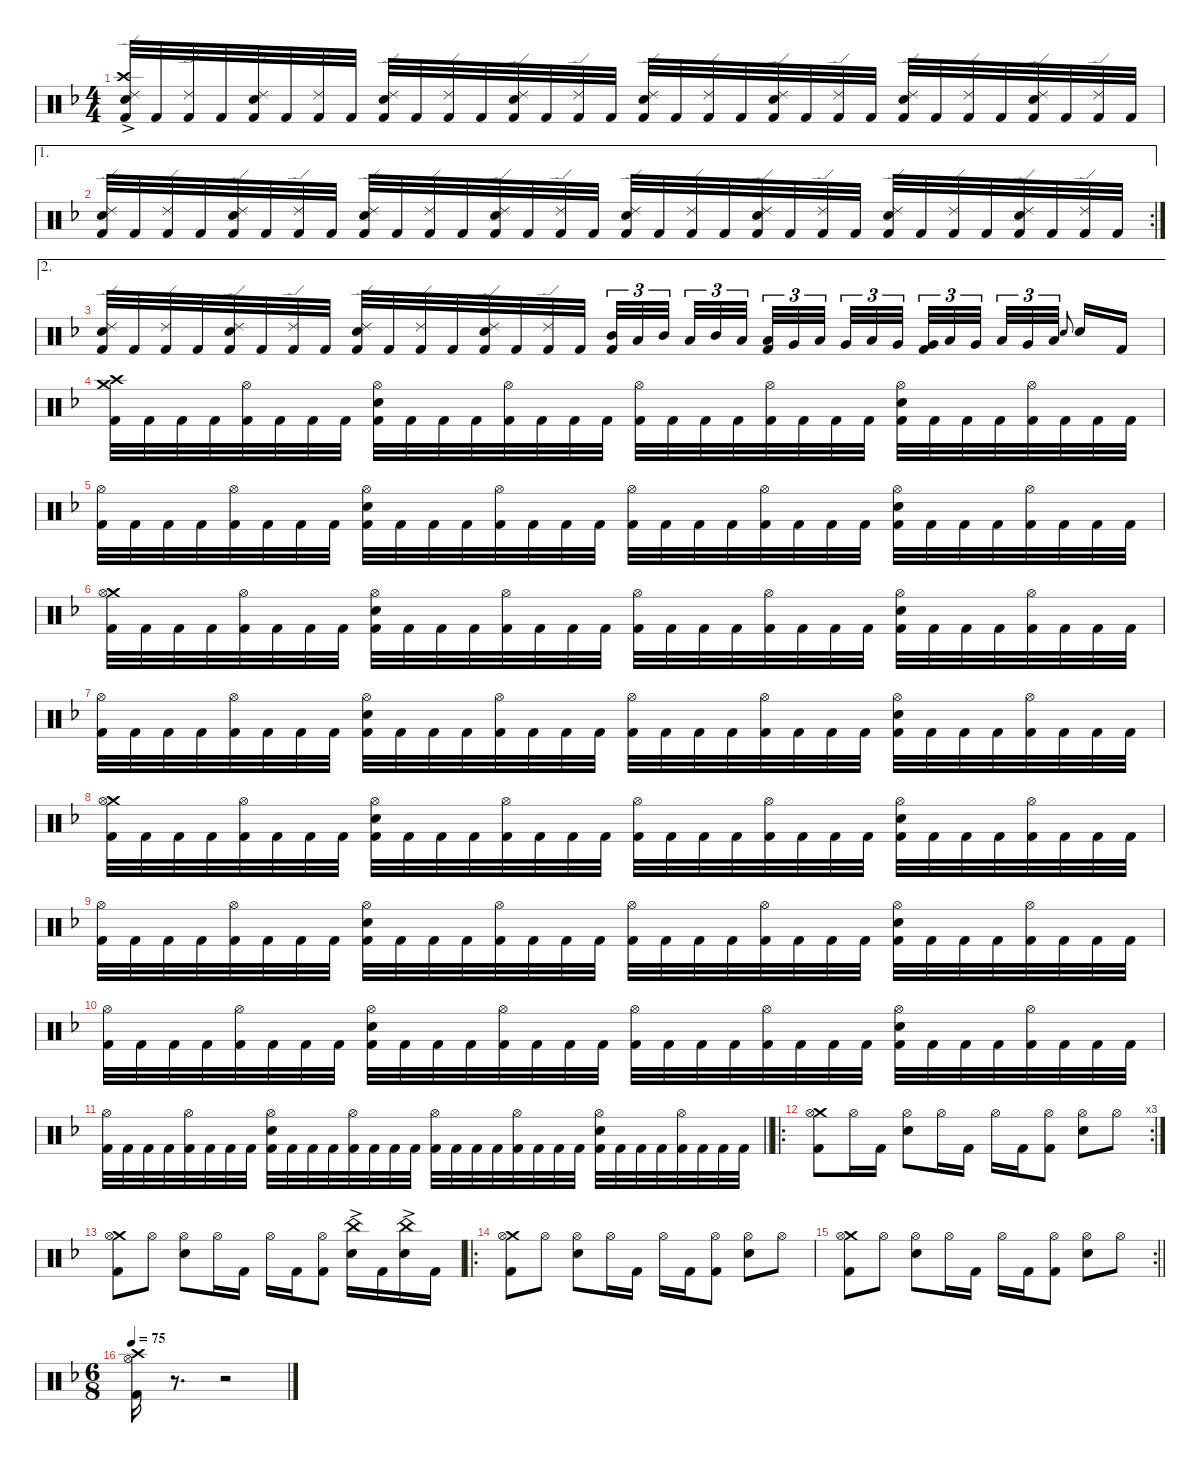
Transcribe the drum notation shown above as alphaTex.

\defaultSystemsLayout 4
\hideDynamics
\bracketExtendMode nobrackets
\singleTrackTrackNamePolicy hidden
\multiTrackTrackNamePolicy hidden
\otherSystemsTrackNameOrientation horizontal
\track ("Martin Lopez - Drums" "drm.") {defaultSystemsLayout 4 instrument percussion}
\staff {score}
\articulation defaults
\ts (4 4)
\tempo (85 hide)
\clef neutral
\ks dminor
("Ride (edge) 2"{acc forcenatural} "Crash high (hit)"{ac acc forcenatural} "Snare (hit) 2"{acc forcenatural} "Kick (hit) 2"{acc forcenatural}).32{dy f beam Up} "Kick (hit) 2"{acc forcenatural}.32{beam Up} ("Ride (edge) 2"{acc forcenatural} "Kick (hit) 2"{acc forcenatural}).32{beam Up} "Kick (hit) 2"{acc forcenatural}.32{beam Up} ("Ride (edge) 2"{acc forcenatural} "Snare (hit) 2"{acc forcenatural} "Kick (hit) 2"{acc forcenatural}).32{beam Up} "Kick (hit) 2"{acc forcenatural}.32{beam Up} ("Ride (edge) 2"{acc forcenatural} "Kick (hit) 2"{acc forcenatural}).32{beam Up} "Kick (hit) 2"{acc forcenatural}.32{beam Up} ("Ride (edge) 2"{acc forcenatural} "Snare (hit) 2"{acc forcenatural} "Kick (hit) 2"{acc forcenatural}).32{beam Up} "Kick (hit) 2"{acc forcenatural}.32{beam Up} ("Ride (edge) 2"{acc forcenatural} "Kick (hit) 2"{acc forcenatural}).32{beam Up} "Kick (hit) 2"{acc forcenatural}.32{beam Up} ("Ride (edge) 2"{acc forcenatural} "Snare (hit) 2"{acc forcenatural} "Kick (hit) 2"{acc forcenatural}).32{beam Up} "Kick (hit) 2"{acc forcenatural}.32{beam Up} ("Ride (edge) 2"{acc forcenatural} "Kick (hit) 2"{acc forcenatural}).32{beam Up} "Kick (hit) 2"{acc forcenatural}.32{beam Up} ("Ride (edge) 2"{acc forcenatural} "Snare (hit) 2"{acc forcenatural} "Kick (hit) 2"{acc forcenatural}).32{beam Up} "Kick (hit) 2"{acc forcenatural}.32{beam Up} ("Ride (edge) 2"{acc forcenatural} "Kick (hit) 2"{acc forcenatural}).32{beam Up} "Kick (hit) 2"{acc forcenatural}.32{beam Up} ("Ride (edge) 2"{acc forcenatural} "Snare (hit) 2"{acc forcenatural} "Kick (hit) 2"{acc forcenatural}).32{beam Up} "Kick (hit) 2"{acc forcenatural}.32{beam Up} ("Ride (edge) 2"{acc forcenatural} "Kick (hit) 2"{acc forcenatural}).32{beam Up} "Kick (hit) 2"{acc forcenatural}.32{beam Up} ("Ride (edge) 2"{acc forcenatural} "Snare (hit) 2"{acc forcenatural} "Kick (hit) 2"{acc forcenatural}).32{beam Up} "Kick (hit) 2"{acc forcenatural}.32{beam Up} ("Ride (edge) 2"{acc forcenatural} "Kick (hit) 2"{acc forcenatural}).32{beam Up} "Kick (hit) 2"{acc forcenatural}.32{beam Up} ("Ride (edge) 2"{acc forcenatural} "Snare (hit) 2"{acc forcenatural} "Kick (hit) 2"{acc forcenatural}).32{beam Up} "Kick (hit) 2"{acc forcenatural}.32{beam Up} ("Ride (edge) 2"{acc forcenatural} "Kick (hit) 2"{acc forcenatural}).32{beam Up} "Kick (hit) 2"{acc forcenatural}.32{beam Up} |
\ae 1
\rc 2
\tempo (84 hide)
("Ride (edge) 2"{acc forcenatural} "Snare (hit) 2"{acc forcenatural} "Kick (hit) 2"{acc forcenatural}).32{beam Up} "Kick (hit) 2"{acc forcenatural}.32{beam Up} ("Ride (edge) 2"{acc forcenatural} "Kick (hit) 2"{acc forcenatural}).32{beam Up} "Kick (hit) 2"{acc forcenatural}.32{beam Up} ("Ride (edge) 2"{acc forcenatural} "Snare (hit) 2"{acc forcenatural} "Kick (hit) 2"{acc forcenatural}).32{beam Up} "Kick (hit) 2"{acc forcenatural}.32{beam Up} ("Ride (edge) 2"{acc forcenatural} "Kick (hit) 2"{acc forcenatural}).32{beam Up} "Kick (hit) 2"{acc forcenatural}.32{beam Up} ("Ride (edge) 2"{acc forcenatural} "Snare (hit) 2"{acc forcenatural} "Kick (hit) 2"{acc forcenatural}).32{beam Up} "Kick (hit) 2"{acc forcenatural}.32{beam Up} ("Ride (edge) 2"{acc forcenatural} "Kick (hit) 2"{acc forcenatural}).32{beam Up} "Kick (hit) 2"{acc forcenatural}.32{beam Up} ("Ride (edge) 2"{acc forcenatural} "Snare (hit) 2"{acc forcenatural} "Kick (hit) 2"{acc forcenatural}).32{beam Up} "Kick (hit) 2"{acc forcenatural}.32{beam Up} ("Ride (edge) 2"{acc forcenatural} "Kick (hit) 2"{acc forcenatural}).32{beam Up} "Kick (hit) 2"{acc forcenatural}.32{beam Up} ("Ride (edge) 2"{acc forcenatural} "Snare (hit) 2"{acc forcenatural} "Kick (hit) 2"{acc forcenatural}).32{beam Up} "Kick (hit) 2"{acc forcenatural}.32{beam Up} ("Ride (edge) 2"{acc forcenatural} "Kick (hit) 2"{acc forcenatural}).32{beam Up} "Kick (hit) 2"{acc forcenatural}.32{beam Up} ("Ride (edge) 2"{acc forcenatural} "Snare (hit) 2"{acc forcenatural} "Kick (hit) 2"{acc forcenatural}).32{beam Up} "Kick (hit) 2"{acc forcenatural}.32{beam Up} ("Ride (edge) 2"{acc forcenatural} "Kick (hit) 2"{acc forcenatural}).32{beam Up} "Kick (hit) 2"{acc forcenatural}.32{beam Up} ("Ride (edge) 2"{acc forcenatural} "Snare (hit) 2"{acc forcenatural} "Kick (hit) 2"{acc forcenatural}).32{beam Up} "Kick (hit) 2"{acc forcenatural}.32{beam Up} ("Ride (edge) 2"{acc forcenatural} "Kick (hit) 2"{acc forcenatural}).32{beam Up} "Kick (hit) 2"{acc forcenatural}.32{beam Up} ("Ride (edge) 2"{acc forcenatural} "Snare (hit) 2"{acc forcenatural} "Kick (hit) 2"{acc forcenatural}).32{beam Up} "Kick (hit) 2"{acc forcenatural}.32{beam Up} ("Ride (edge) 2"{acc forcenatural} "Kick (hit) 2"{acc forcenatural}).32{beam Up} "Kick (hit) 2"{acc forcenatural}.32{beam Up} |
\ae 2
\tempo (85 hide)
("Ride (edge) 2"{acc forcenatural} "Snare (hit) 2"{acc forcenatural} "Kick (hit) 2"{acc forcenatural}).32{beam Up} "Kick (hit) 2"{acc forcenatural}.32{beam Up} ("Ride (edge) 2"{acc forcenatural} "Kick (hit) 2"{acc forcenatural}).32{beam Up} "Kick (hit) 2"{acc forcenatural}.32{beam Up} ("Ride (edge) 2"{acc forcenatural} "Snare (hit) 2"{acc forcenatural} "Kick (hit) 2"{acc forcenatural}).32{beam Up} "Kick (hit) 2"{acc forcenatural}.32{beam Up} ("Ride (edge) 2"{acc forcenatural} "Kick (hit) 2"{acc forcenatural}).32{beam Up} "Kick (hit) 2"{acc forcenatural}.32{beam Up} ("Ride (edge) 2"{acc forcenatural} "Snare (hit) 2"{acc forcenatural} "Kick (hit) 2"{acc forcenatural}).32{beam Up} "Kick (hit) 2"{acc forcenatural}.32{beam Up} ("Ride (edge) 2"{acc forcenatural} "Kick (hit) 2"{acc forcenatural}).32{beam Up} "Kick (hit) 2"{acc forcenatural}.32{beam Up} ("Ride (edge) 2"{acc forcenatural} "Snare (hit) 2"{acc forcenatural} "Kick (hit) 2"{acc forcenatural}).32{beam Up} "Kick (hit) 2"{acc forcenatural}.32{beam Up} ("Ride (edge) 2"{acc forcenatural} "Kick (hit) 2"{acc forcenatural}).32{beam Up} "Kick (hit) 2"{acc forcenatural}.32{beam Up} ("Mid Tom (hit)"{acc forcenatural} "Kick (hit) 2"{acc forcenatural}).32{tu (3 2) beam Up} "Low Tom (hit)"{acc forcenatural}.32{tu (3 2) beam Up} "Mid Tom (hit)"{acc forcenatural}.32{tu (3 2) beam Up} "Low Tom (hit)"{acc forcenatural}.32{tu (3 2) beam Up} "Mid Tom (hit)"{acc forcenatural}.32{tu (3 2) beam Up} "Low Tom (hit)"{acc forcenatural}.32{tu (3 2) beam Up} ("Low Tom (hit)"{acc forcenatural} "Kick (hit) 2"{acc forcenatural}).32{tu (3 2) beam Up} "Very Low Tom (hit)"{acc forcenatural}.32{tu (3 2) beam Up} "Low Tom (hit)"{acc forcenatural}.32{tu (3 2) beam Up} "Very Low Tom (hit)"{acc forcenatural}.32{tu (3 2) beam Up} "Low Tom (hit)"{acc forcenatural}.32{tu (3 2) beam Up} "Very Low Tom (hit)"{acc forcenatural}.32{tu (3 2) beam Up} ("Very Low Tom (hit)"{acc forcenatural} "Kick (hit) 2"{acc forcenatural}).32{tu (3 2) beam Up} "Low Floor Tom (hit)"{acc forcenatural}.32{tu (3 2) beam Up} "Very Low Tom (hit)"{acc forcenatural}.32{tu (3 2) beam Up} "Low Floor Tom (hit)"{acc forcenatural}.32{tu (3 2) beam Up} "Very Low Tom (hit)"{acc forcenatural}.32{tu (3 2) beam Up} "Low Floor Tom (hit)"{acc forcenatural}.32{tu (3 2) beam Up} "Electric Snare (hit)"{acc forcenatural}.8{gr onbeat dy mf beam Up} "Snare (hit) 2"{acc forcenatural}.16{dy f beam Up} "Kick (hit) 2"{acc forcenatural}.16{beam Up} |
\tempo (84 0.00625 hide)
("Crash medium (hit)"{acc forcenatural} "Crash high (hit)"{acc forcenatural} "Kick (hit) 2"{acc forcenatural}).32{beam Down} "Kick (hit) 2"{acc forcenatural}.32{beam Down} "Kick (hit) 2"{acc forcenatural}.32{beam Down} "Kick (hit) 2"{acc forcenatural}.32{beam Down} ("Hi-Hat (open)"{acc forcenatural} "Kick (hit) 2"{acc forcenatural}).32{beam Down} "Kick (hit) 2"{acc forcenatural}.32{beam Down} "Kick (hit) 2"{acc forcenatural}.32{beam Down} "Kick (hit) 2"{acc forcenatural}.32{beam Down} ("Hi-Hat (open)"{acc forcenatural} "Snare (hit) 2"{acc forcenatural} "Kick (hit) 2"{acc forcenatural}).32{beam Down} "Kick (hit) 2"{acc forcenatural}.32{beam Down} "Kick (hit) 2"{acc forcenatural}.32{beam Down} "Kick (hit) 2"{acc forcenatural}.32{beam Down} ("Hi-Hat (open)"{acc forcenatural} "Kick (hit) 2"{acc forcenatural}).32{beam Down} "Kick (hit) 2"{acc forcenatural}.32{beam Down} "Kick (hit) 2"{acc forcenatural}.32{beam Down} "Kick (hit) 2"{acc forcenatural}.32{beam Down} ("Hi-Hat (open)"{acc forcenatural} "Kick (hit) 2"{acc forcenatural}).32{beam Down} "Kick (hit) 2"{acc forcenatural}.32{beam Down} "Kick (hit) 2"{acc forcenatural}.32{beam Down} "Kick (hit) 2"{acc forcenatural}.32{beam Down} ("Hi-Hat (open)"{acc forcenatural} "Kick (hit) 2"{acc forcenatural}).32{beam Down} "Kick (hit) 2"{acc forcenatural}.32{beam Down} "Kick (hit) 2"{acc forcenatural}.32{beam Down} "Kick (hit) 2"{acc forcenatural}.32{beam Down} ("Hi-Hat (open)"{acc forcenatural} "Snare (hit) 2"{acc forcenatural} "Kick (hit) 2"{acc forcenatural}).32{beam Down} "Kick (hit) 2"{acc forcenatural}.32{beam Down} "Kick (hit) 2"{acc forcenatural}.32{beam Down} "Kick (hit) 2"{acc forcenatural}.32{beam Down} ("Hi-Hat (open)"{acc forcenatural} "Kick (hit) 2"{acc forcenatural}).32{beam Down} "Kick (hit) 2"{acc forcenatural}.32{beam Down} "Kick (hit) 2"{acc forcenatural}.32{beam Down} "Kick (hit) 2"{acc forcenatural}.32{beam Down} |
\tempo (85 0.00625 hide)
("Hi-Hat (open)"{acc forcenatural} "Kick (hit) 2"{acc forcenatural}).32{beam Down} "Kick (hit) 2"{acc forcenatural}.32{beam Down} "Kick (hit) 2"{acc forcenatural}.32{beam Down} "Kick (hit) 2"{acc forcenatural}.32{beam Down} ("Hi-Hat (open)"{acc forcenatural} "Kick (hit) 2"{acc forcenatural}).32{beam Down} "Kick (hit) 2"{acc forcenatural}.32{beam Down} "Kick (hit) 2"{acc forcenatural}.32{beam Down} "Kick (hit) 2"{acc forcenatural}.32{beam Down} ("Hi-Hat (open)"{acc forcenatural} "Snare (hit) 2"{acc forcenatural} "Kick (hit) 2"{acc forcenatural}).32{beam Down} "Kick (hit) 2"{acc forcenatural}.32{beam Down} "Kick (hit) 2"{acc forcenatural}.32{beam Down} "Kick (hit) 2"{acc forcenatural}.32{beam Down} ("Hi-Hat (open)"{acc forcenatural} "Kick (hit) 2"{acc forcenatural}).32{beam Down} "Kick (hit) 2"{acc forcenatural}.32{beam Down} "Kick (hit) 2"{acc forcenatural}.32{beam Down} "Kick (hit) 2"{acc forcenatural}.32{beam Down} ("Hi-Hat (open)"{acc forcenatural} "Kick (hit) 2"{acc forcenatural}).32{beam Down} "Kick (hit) 2"{acc forcenatural}.32{beam Down} "Kick (hit) 2"{acc forcenatural}.32{beam Down} "Kick (hit) 2"{acc forcenatural}.32{beam Down} ("Hi-Hat (open)"{acc forcenatural} "Kick (hit) 2"{acc forcenatural}).32{beam Down} "Kick (hit) 2"{acc forcenatural}.32{beam Down} "Kick (hit) 2"{acc forcenatural}.32{beam Down} "Kick (hit) 2"{acc forcenatural}.32{beam Down} ("Hi-Hat (open)"{acc forcenatural} "Snare (hit) 2"{acc forcenatural} "Kick (hit) 2"{acc forcenatural}).32{beam Down} "Kick (hit) 2"{acc forcenatural}.32{beam Down} "Kick (hit) 2"{acc forcenatural}.32{beam Down} "Kick (hit) 2"{acc forcenatural}.32{beam Down} ("Hi-Hat (open)"{acc forcenatural} "Kick (hit) 2"{acc forcenatural}).32{beam Down} "Kick (hit) 2"{acc forcenatural}.32{beam Down} "Kick (hit) 2"{acc forcenatural}.32{beam Down} "Kick (hit) 2"{acc forcenatural}.32{beam Down} |
\tempo (84 0.00625 hide)
("Crash medium (hit)"{acc forcenatural} "Hi-Hat (open)"{acc forcenatural} "Kick (hit) 2"{acc forcenatural}).32{beam Down} "Kick (hit) 2"{acc forcenatural}.32{beam Down} "Kick (hit) 2"{acc forcenatural}.32{beam Down} "Kick (hit) 2"{acc forcenatural}.32{beam Down} ("Hi-Hat (open)"{acc forcenatural} "Kick (hit) 2"{acc forcenatural}).32{beam Down} "Kick (hit) 2"{acc forcenatural}.32{beam Down} "Kick (hit) 2"{acc forcenatural}.32{beam Down} "Kick (hit) 2"{acc forcenatural}.32{beam Down} ("Hi-Hat (open)"{acc forcenatural} "Snare (hit) 2"{acc forcenatural} "Kick (hit) 2"{acc forcenatural}).32{beam Down} "Kick (hit) 2"{acc forcenatural}.32{beam Down} "Kick (hit) 2"{acc forcenatural}.32{beam Down} "Kick (hit) 2"{acc forcenatural}.32{beam Down} ("Hi-Hat (open)"{acc forcenatural} "Kick (hit) 2"{acc forcenatural}).32{beam Down} "Kick (hit) 2"{acc forcenatural}.32{beam Down} "Kick (hit) 2"{acc forcenatural}.32{beam Down} "Kick (hit) 2"{acc forcenatural}.32{beam Down} ("Hi-Hat (open)"{acc forcenatural} "Kick (hit) 2"{acc forcenatural}).32{beam Down} "Kick (hit) 2"{acc forcenatural}.32{beam Down} "Kick (hit) 2"{acc forcenatural}.32{beam Down} "Kick (hit) 2"{acc forcenatural}.32{beam Down} ("Hi-Hat (open)"{acc forcenatural} "Kick (hit) 2"{acc forcenatural}).32{beam Down} "Kick (hit) 2"{acc forcenatural}.32{beam Down} "Kick (hit) 2"{acc forcenatural}.32{beam Down} "Kick (hit) 2"{acc forcenatural}.32{beam Down} ("Hi-Hat (open)"{acc forcenatural} "Snare (hit) 2"{acc forcenatural} "Kick (hit) 2"{acc forcenatural}).32{beam Down} "Kick (hit) 2"{acc forcenatural}.32{beam Down} "Kick (hit) 2"{acc forcenatural}.32{beam Down} "Kick (hit) 2"{acc forcenatural}.32{beam Down} ("Hi-Hat (open)"{acc forcenatural} "Kick (hit) 2"{acc forcenatural}).32{beam Down} "Kick (hit) 2"{acc forcenatural}.32{beam Down} "Kick (hit) 2"{acc forcenatural}.32{beam Down} "Kick (hit) 2"{acc forcenatural}.32{beam Down} |
\tempo (85 hide)
("Hi-Hat (open)"{acc forcenatural} "Kick (hit) 2"{acc forcenatural}).32{beam Down} "Kick (hit) 2"{acc forcenatural}.32{beam Down} "Kick (hit) 2"{acc forcenatural}.32{beam Down} "Kick (hit) 2"{acc forcenatural}.32{beam Down} ("Hi-Hat (open)"{acc forcenatural} "Kick (hit) 2"{acc forcenatural}).32{beam Down} "Kick (hit) 2"{acc forcenatural}.32{beam Down} "Kick (hit) 2"{acc forcenatural}.32{beam Down} "Kick (hit) 2"{acc forcenatural}.32{beam Down} ("Hi-Hat (open)"{acc forcenatural} "Snare (hit) 2"{acc forcenatural} "Kick (hit) 2"{acc forcenatural}).32{beam Down} "Kick (hit) 2"{acc forcenatural}.32{beam Down} "Kick (hit) 2"{acc forcenatural}.32{beam Down} "Kick (hit) 2"{acc forcenatural}.32{beam Down} ("Hi-Hat (open)"{acc forcenatural} "Kick (hit) 2"{acc forcenatural}).32{beam Down} "Kick (hit) 2"{acc forcenatural}.32{beam Down} "Kick (hit) 2"{acc forcenatural}.32{beam Down} "Kick (hit) 2"{acc forcenatural}.32{beam Down} ("Hi-Hat (open)"{acc forcenatural} "Kick (hit) 2"{acc forcenatural}).32{beam Down} "Kick (hit) 2"{acc forcenatural}.32{beam Down} "Kick (hit) 2"{acc forcenatural}.32{beam Down} "Kick (hit) 2"{acc forcenatural}.32{beam Down} ("Hi-Hat (open)"{acc forcenatural} "Kick (hit) 2"{acc forcenatural}).32{beam Down} "Kick (hit) 2"{acc forcenatural}.32{beam Down} "Kick (hit) 2"{acc forcenatural}.32{beam Down} "Kick (hit) 2"{acc forcenatural}.32{beam Down} ("Hi-Hat (open)"{acc forcenatural} "Snare (hit) 2"{acc forcenatural} "Kick (hit) 2"{acc forcenatural}).32{beam Down} "Kick (hit) 2"{acc forcenatural}.32{beam Down} "Kick (hit) 2"{acc forcenatural}.32{beam Down} "Kick (hit) 2"{acc forcenatural}.32{beam Down} ("Hi-Hat (open)"{acc forcenatural} "Kick (hit) 2"{acc forcenatural}).32{beam Down} "Kick (hit) 2"{acc forcenatural}.32{beam Down} "Kick (hit) 2"{acc forcenatural}.32{beam Down} "Kick (hit) 2"{acc forcenatural}.32{beam Down} |
\tempo (84 0.00625 hide)
("Crash medium (hit)"{acc forcenatural} "Hi-Hat (open)"{acc forcenatural} "Kick (hit) 2"{acc forcenatural}).32{beam Down} "Kick (hit) 2"{acc forcenatural}.32{beam Down} "Kick (hit) 2"{acc forcenatural}.32{beam Down} "Kick (hit) 2"{acc forcenatural}.32{beam Down} ("Hi-Hat (open)"{acc forcenatural} "Kick (hit) 2"{acc forcenatural}).32{beam Down} "Kick (hit) 2"{acc forcenatural}.32{beam Down} "Kick (hit) 2"{acc forcenatural}.32{beam Down} "Kick (hit) 2"{acc forcenatural}.32{beam Down} ("Hi-Hat (open)"{acc forcenatural} "Snare (hit) 2"{acc forcenatural} "Kick (hit) 2"{acc forcenatural}).32{beam Down} "Kick (hit) 2"{acc forcenatural}.32{beam Down} "Kick (hit) 2"{acc forcenatural}.32{beam Down} "Kick (hit) 2"{acc forcenatural}.32{beam Down} ("Hi-Hat (open)"{acc forcenatural} "Kick (hit) 2"{acc forcenatural}).32{beam Down} "Kick (hit) 2"{acc forcenatural}.32{beam Down} "Kick (hit) 2"{acc forcenatural}.32{beam Down} "Kick (hit) 2"{acc forcenatural}.32{beam Down} ("Hi-Hat (open)"{acc forcenatural} "Kick (hit) 2"{acc forcenatural}).32{beam Down} "Kick (hit) 2"{acc forcenatural}.32{beam Down} "Kick (hit) 2"{acc forcenatural}.32{beam Down} "Kick (hit) 2"{acc forcenatural}.32{beam Down} ("Hi-Hat (open)"{acc forcenatural} "Kick (hit) 2"{acc forcenatural}).32{beam Down} "Kick (hit) 2"{acc forcenatural}.32{beam Down} "Kick (hit) 2"{acc forcenatural}.32{beam Down} "Kick (hit) 2"{acc forcenatural}.32{beam Down} ("Hi-Hat (open)"{acc forcenatural} "Snare (hit) 2"{acc forcenatural} "Kick (hit) 2"{acc forcenatural}).32{beam Down} "Kick (hit) 2"{acc forcenatural}.32{beam Down} "Kick (hit) 2"{acc forcenatural}.32{beam Down} "Kick (hit) 2"{acc forcenatural}.32{beam Down} ("Hi-Hat (open)"{acc forcenatural} "Kick (hit) 2"{acc forcenatural}).32{beam Down} "Kick (hit) 2"{acc forcenatural}.32{beam Down} "Kick (hit) 2"{acc forcenatural}.32{beam Down} "Kick (hit) 2"{acc forcenatural}.32{beam Down} |
\tempo (85 0.00625 hide)
("Hi-Hat (open)"{acc forcenatural} "Kick (hit) 2"{acc forcenatural}).32{beam Down} "Kick (hit) 2"{acc forcenatural}.32{beam Down} "Kick (hit) 2"{acc forcenatural}.32{beam Down} "Kick (hit) 2"{acc forcenatural}.32{beam Down} ("Hi-Hat (open)"{acc forcenatural} "Kick (hit) 2"{acc forcenatural}).32{beam Down} "Kick (hit) 2"{acc forcenatural}.32{beam Down} "Kick (hit) 2"{acc forcenatural}.32{beam Down} "Kick (hit) 2"{acc forcenatural}.32{beam Down} ("Hi-Hat (open)"{acc forcenatural} "Snare (hit) 2"{acc forcenatural} "Kick (hit) 2"{acc forcenatural}).32{beam Down} "Kick (hit) 2"{acc forcenatural}.32{beam Down} "Kick (hit) 2"{acc forcenatural}.32{beam Down} "Kick (hit) 2"{acc forcenatural}.32{beam Down} ("Hi-Hat (open)"{acc forcenatural} "Kick (hit) 2"{acc forcenatural}).32{beam Down} "Kick (hit) 2"{acc forcenatural}.32{beam Down} "Kick (hit) 2"{acc forcenatural}.32{beam Down} "Kick (hit) 2"{acc forcenatural}.32{beam Down} ("Hi-Hat (open)"{acc forcenatural} "Kick (hit) 2"{acc forcenatural}).32{beam Down} "Kick (hit) 2"{acc forcenatural}.32{beam Down} "Kick (hit) 2"{acc forcenatural}.32{beam Down} "Kick (hit) 2"{acc forcenatural}.32{beam Down} ("Hi-Hat (open)"{acc forcenatural} "Kick (hit) 2"{acc forcenatural}).32{beam Down} "Kick (hit) 2"{acc forcenatural}.32{beam Down} "Kick (hit) 2"{acc forcenatural}.32{beam Down} "Kick (hit) 2"{acc forcenatural}.32{beam Down} ("Hi-Hat (open)"{acc forcenatural} "Snare (hit) 2"{acc forcenatural} "Kick (hit) 2"{acc forcenatural}).32{beam Down} "Kick (hit) 2"{acc forcenatural}.32{beam Down} "Kick (hit) 2"{acc forcenatural}.32{beam Down} "Kick (hit) 2"{acc forcenatural}.32{beam Down} ("Hi-Hat (open)"{acc forcenatural} "Kick (hit) 2"{acc forcenatural}).32{beam Down} "Kick (hit) 2"{acc forcenatural}.32{beam Down} "Kick (hit) 2"{acc forcenatural}.32{beam Down} "Kick (hit) 2"{acc forcenatural}.32{beam Down} |
\tempo (84 hide)
("Hi-Hat (open)"{acc forcenatural} "Kick (hit) 2"{acc forcenatural}).32{beam Down} "Kick (hit) 2"{acc forcenatural}.32{beam Down} "Kick (hit) 2"{acc forcenatural}.32{beam Down} "Kick (hit) 2"{acc forcenatural}.32{beam Down} ("Hi-Hat (open)"{acc forcenatural} "Kick (hit) 2"{acc forcenatural}).32{beam Down} "Kick (hit) 2"{acc forcenatural}.32{beam Down} "Kick (hit) 2"{acc forcenatural}.32{beam Down} "Kick (hit) 2"{acc forcenatural}.32{beam Down} ("Hi-Hat (open)"{acc forcenatural} "Snare (hit) 2"{acc forcenatural} "Kick (hit) 2"{acc forcenatural}).32{beam Down} "Kick (hit) 2"{acc forcenatural}.32{beam Down} "Kick (hit) 2"{acc forcenatural}.32{beam Down} "Kick (hit) 2"{acc forcenatural}.32{beam Down} ("Hi-Hat (open)"{acc forcenatural} "Kick (hit) 2"{acc forcenatural}).32{beam Down} "Kick (hit) 2"{acc forcenatural}.32{beam Down} "Kick (hit) 2"{acc forcenatural}.32{beam Down} "Kick (hit) 2"{acc forcenatural}.32{beam Down} ("Hi-Hat (open)"{acc forcenatural} "Kick (hit) 2"{acc forcenatural}).32{beam Down} "Kick (hit) 2"{acc forcenatural}.32{beam Down} "Kick (hit) 2"{acc forcenatural}.32{beam Down} "Kick (hit) 2"{acc forcenatural}.32{beam Down} ("Hi-Hat (open)"{acc forcenatural} "Kick (hit) 2"{acc forcenatural}).32{beam Down} "Kick (hit) 2"{acc forcenatural}.32{beam Down} "Kick (hit) 2"{acc forcenatural}.32{beam Down} "Kick (hit) 2"{acc forcenatural}.32{beam Down} ("Hi-Hat (open)"{acc forcenatural} "Snare (hit) 2"{acc forcenatural} "Kick (hit) 2"{acc forcenatural}).32{beam Down} "Kick (hit) 2"{acc forcenatural}.32{beam Down} "Kick (hit) 2"{acc forcenatural}.32{beam Down} "Kick (hit) 2"{acc forcenatural}.32{beam Down} ("Hi-Hat (open)"{acc forcenatural} "Kick (hit) 2"{acc forcenatural}).32{beam Down} "Kick (hit) 2"{acc forcenatural}.32{beam Down} "Kick (hit) 2"{acc forcenatural}.32{beam Down} "Kick (hit) 2"{acc forcenatural}.32{beam Down} |
\tempo (85 0.00625 hide)
\barLineRight lightlight
("Hi-Hat (open)"{acc forcenatural} "Kick (hit) 2"{acc forcenatural}).32{beam Down} "Kick (hit) 2"{acc forcenatural}.32{beam Down} "Kick (hit) 2"{acc forcenatural}.32{beam Down} "Kick (hit) 2"{acc forcenatural}.32{beam Down} ("Hi-Hat (open)"{acc forcenatural} "Kick (hit) 2"{acc forcenatural}).32{beam Down} "Kick (hit) 2"{acc forcenatural}.32{beam Down} "Kick (hit) 2"{acc forcenatural}.32{beam Down} "Kick (hit) 2"{acc forcenatural}.32{beam Down} ("Hi-Hat (open)"{acc forcenatural} "Snare (hit) 2"{acc forcenatural} "Kick (hit) 2"{acc forcenatural}).32{beam Down} "Kick (hit) 2"{acc forcenatural}.32{beam Down} "Kick (hit) 2"{acc forcenatural}.32{beam Down} "Kick (hit) 2"{acc forcenatural}.32{beam Down} ("Hi-Hat (open)"{acc forcenatural} "Kick (hit) 2"{acc forcenatural}).32{beam Down} "Kick (hit) 2"{acc forcenatural}.32{beam Down} "Kick (hit) 2"{acc forcenatural}.32{beam Down} "Kick (hit) 2"{acc forcenatural}.32{beam Down} ("Hi-Hat (open)"{acc forcenatural} "Kick (hit) 2"{acc forcenatural}).32{beam Down} "Kick (hit) 2"{acc forcenatural}.32{beam Down} "Kick (hit) 2"{acc forcenatural}.32{beam Down} "Kick (hit) 2"{acc forcenatural}.32{beam Down} ("Hi-Hat (open)"{acc forcenatural} "Kick (hit) 2"{acc forcenatural}).32{beam Down} "Kick (hit) 2"{acc forcenatural}.32{beam Down} "Kick (hit) 2"{acc forcenatural}.32{beam Down} "Kick (hit) 2"{acc forcenatural}.32{beam Down} ("Hi-Hat (open)"{acc forcenatural} "Snare (hit) 2"{acc forcenatural} "Kick (hit) 2"{acc forcenatural}).32{beam Down} "Kick (hit) 2"{acc forcenatural}.32{beam Down} "Kick (hit) 2"{acc forcenatural}.32{beam Down} "Kick (hit) 2"{acc forcenatural}.32{beam Down} ("Hi-Hat (open)"{acc forcenatural} "Kick (hit) 2"{acc forcenatural}).32{beam Down} "Kick (hit) 2"{acc forcenatural}.32{beam Down} "Kick (hit) 2"{acc forcenatural}.32{beam Down} "Kick (hit) 2"{acc forcenatural}.32{beam Down} |
\ro
\rc 3
\tempo (84 hide)
("Crash medium (hit)"{acc forcenatural} "Hi-Hat (open)"{acc forcenatural} "Kick (hit) 2"{acc forcenatural}).8{beam Down} "Hi-Hat (open)"{acc forcenatural}.16{beam Down} "Kick (hit) 2"{acc forcenatural}.16{beam Down} ("Hi-Hat (open)"{acc forcenatural} "Snare (hit) 2"{acc forcenatural}).8{beam Down} "Hi-Hat (open)"{acc forcenatural}.16{beam Down} "Kick (hit) 2"{acc forcenatural}.16{beam Down} "Hi-Hat (open)"{acc forcenatural}.16{beam Down} "Kick (hit) 2"{acc forcenatural}.16{beam Down} ("Hi-Hat (open)"{acc forcenatural} "Kick (hit) 2"{acc forcenatural}).8{beam Down} ("Hi-Hat (open)"{acc forcenatural} "Snare (hit) 2"{acc forcenatural}).8{beam Down} "Hi-Hat (open)"{acc forcenatural}.8{beam Down} |
\tempo (85 hide)
("Crash medium (hit)"{acc forcenatural} "Hi-Hat (open)"{acc forcenatural} "Kick (hit) 2"{acc forcenatural}).8{beam Down} "Hi-Hat (open)"{acc forcenatural}.8{beam Down} ("Hi-Hat (open)"{acc forcenatural} "Snare (hit) 2"{acc forcenatural}).8{beam Down} "Hi-Hat (open)"{acc forcenatural}.16{beam Down} "Kick (hit) 2"{acc forcenatural}.16{beam Down} "Hi-Hat (open)"{acc forcenatural}.16{beam Down} "Kick (hit) 2"{acc forcenatural}.16{beam Down} ("Hi-Hat (open)"{acc forcenatural} "Kick (hit) 2"{acc forcenatural}).8{beam Down} ("China (hit)"{ac acc forcenatural} "Snare (hit) 2"{ac acc forcenatural}).16{beam Down} "Kick (hit) 2"{acc forcenatural}.16{beam Down} ("China (hit)"{ac acc forcenatural} "Snare (hit) 2"{ac acc forcenatural}).16{beam Down} "Kick (hit) 2"{acc forcenatural}.16{beam Down} |
\ro
\tempo (84 hide)
("Crash medium (hit)"{acc forcenatural} "Hi-Hat (open)"{acc forcenatural} "Kick (hit) 2"{acc forcenatural}).8{beam Down} "Hi-Hat (open)"{acc forcenatural}.8{beam Down} ("Hi-Hat (open)"{acc forcenatural} "Snare (hit) 2"{acc forcenatural}).8{beam Down} "Hi-Hat (open)"{acc forcenatural}.16{beam Down} "Kick (hit) 2"{acc forcenatural}.16{beam Down} "Hi-Hat (open)"{acc forcenatural}.16{beam Down} "Kick (hit) 2"{acc forcenatural}.16{beam Down} ("Hi-Hat (open)"{acc forcenatural} "Kick (hit) 2"{acc forcenatural}).8{beam Down} ("Hi-Hat (open)"{acc forcenatural} "Snare (hit) 2"{acc forcenatural}).8{beam Down} "Hi-Hat (open)"{acc forcenatural}.8{beam Down} |
\rc 2
\tempo (85 hide)
\barLineRight lightlight
("Crash medium (hit)"{acc forcenatural} "Hi-Hat (open)"{acc forcenatural} "Kick (hit) 2"{acc forcenatural}).8{beam Down} "Hi-Hat (open)"{acc forcenatural}.8{beam Down} ("Hi-Hat (open)"{acc forcenatural} "Snare (hit) 2"{acc forcenatural}).8{beam Down} "Hi-Hat (open)"{acc forcenatural}.16{beam Down} "Kick (hit) 2"{acc forcenatural}.16{beam Down} "Hi-Hat (open)"{acc forcenatural}.16{beam Down} "Kick (hit) 2"{acc forcenatural}.16{beam Down} ("Hi-Hat (open)"{acc forcenatural} "Kick (hit) 2"{acc forcenatural}).8{beam Down} ("Hi-Hat (open)"{acc forcenatural} "Snare (hit) 2"{acc forcenatural}).8{beam Down} "Hi-Hat (open)"{acc forcenatural}.8{beam Down} |
\ts (6 8)
\beaming (8 2 2 2 2)
\tempo 75
("Crash high (hit)"{acc forcenatural} "Hi-Hat (open)"{acc forcenatural} "Kick (hit) 2"{acc forcenatural}).16{beam Down} r.8{d beam Down} r.2{beam Down}
